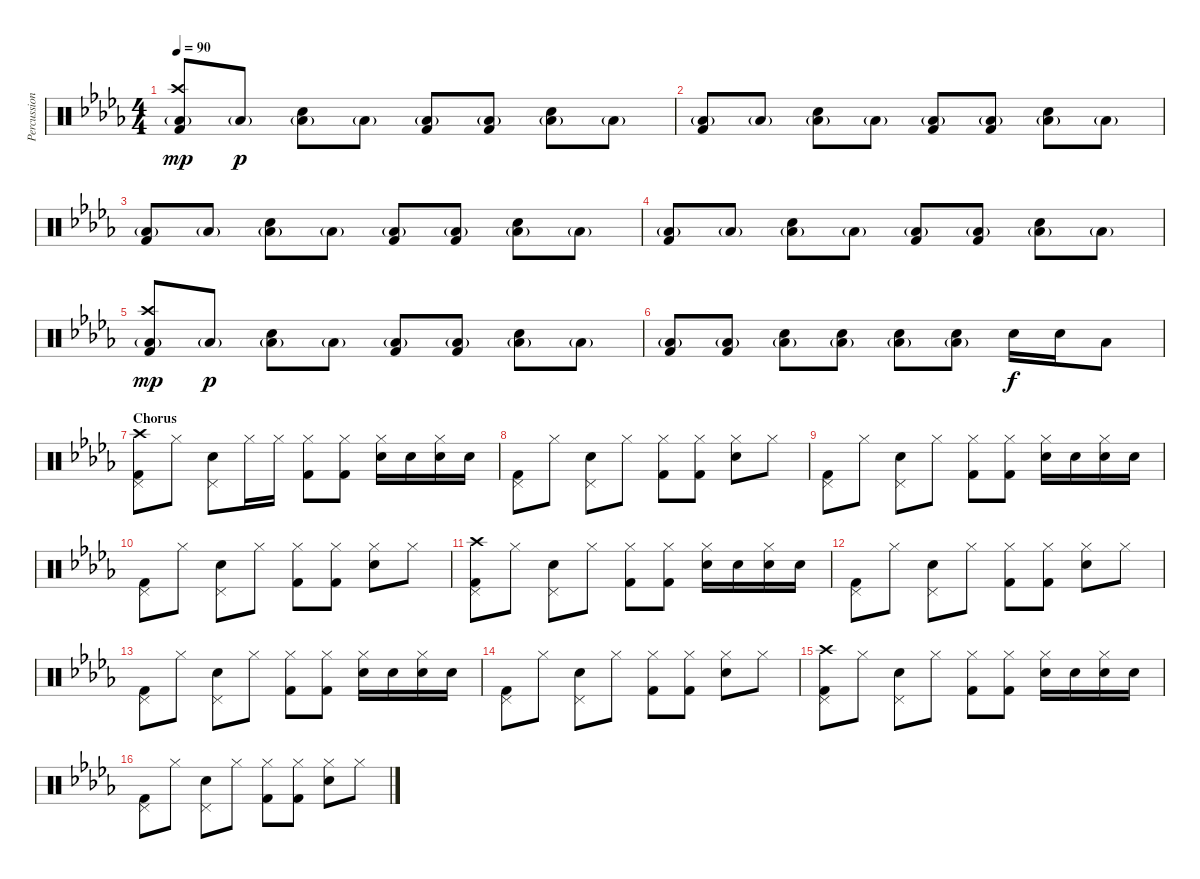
\track ("Percussion" "Percussion") {instrument percussion}
\staff {score}
\articulation defaults
\ts (4 4)
\tempo 90
\clef neutral
\ks db
("Low Floor Tom (hit)"{g} "Crash high (hit)" "Kick (hit) 2").8{dy mp} "Low Floor Tom (hit)"{g}.8{dy p} ("Low Floor Tom (hit)"{g} "Snare (hit) 2").8 "Low Floor Tom (hit)"{g}.8 ("Low Floor Tom (hit)"{g} "Kick (hit) 2").8 ("Low Floor Tom (hit)"{g} "Kick (hit) 2").8 ("Low Floor Tom (hit)"{g} "Snare (hit) 2").8 "Low Floor Tom (hit)"{g}.8 |
("Low Floor Tom (hit)"{g} "Kick (hit) 2").8 "Low Floor Tom (hit)"{g}.8 ("Low Floor Tom (hit)"{g} "Snare (hit) 2").8 "Low Floor Tom (hit)"{g}.8 ("Low Floor Tom (hit)"{g} "Kick (hit) 2").8 ("Low Floor Tom (hit)"{g} "Kick (hit) 2").8 ("Low Floor Tom (hit)"{g} "Snare (hit) 2").8 "Low Floor Tom (hit)"{g}.8 |
("Low Floor Tom (hit)"{g} "Kick (hit) 2").8 "Low Floor Tom (hit)"{g}.8 ("Low Floor Tom (hit)"{g} "Snare (hit) 2").8 "Low Floor Tom (hit)"{g}.8 ("Low Floor Tom (hit)"{g} "Kick (hit) 2").8 ("Low Floor Tom (hit)"{g} "Kick (hit) 2").8 ("Low Floor Tom (hit)"{g} "Snare (hit) 2").8 "Low Floor Tom (hit)"{g}.8 |
("Low Floor Tom (hit)"{g} "Kick (hit) 2").8 "Low Floor Tom (hit)"{g}.8 ("Low Floor Tom (hit)"{g} "Snare (hit) 2").8 "Low Floor Tom (hit)"{g}.8 ("Low Floor Tom (hit)"{g} "Kick (hit) 2").8 ("Low Floor Tom (hit)"{g} "Kick (hit) 2").8 ("Low Floor Tom (hit)"{g} "Snare (hit) 2").8 "Low Floor Tom (hit)"{g}.8 |
("Low Floor Tom (hit)"{g} "Crash high (hit)" "Kick (hit) 2").8{dy mp} "Low Floor Tom (hit)"{g}.8{dy p} ("Low Floor Tom (hit)"{g} "Snare (hit) 2").8 "Low Floor Tom (hit)"{g}.8 ("Low Floor Tom (hit)"{g} "Kick (hit) 2").8 ("Low Floor Tom (hit)"{g} "Kick (hit) 2").8 ("Low Floor Tom (hit)"{g} "Snare (hit) 2").8 "Low Floor Tom (hit)"{g}.8 |
("Low Floor Tom (hit)"{g} "Kick (hit) 2").8 ("Low Floor Tom (hit)"{g} "Kick (hit) 2").8 ("Low Floor Tom (hit)"{g} "Snare (hit) 2").8 ("Low Floor Tom (hit)"{g} "Snare (hit) 2").8 ("Low Floor Tom (hit)"{g} "Snare (hit) 2").8 ("Low Floor Tom (hit)"{g} "Snare (hit) 2").8 "Snare (hit) 2".16{dy f} "Snare (hit) 2".16 "Low Floor Tom (hit)".8 |
\section ("" "Chorus")
("Pedal Hi-Hat (hit)" "Crash high (hit)" "Kick (hit) 2").8 "Hi-Hat (closed)".8 ("Pedal Hi-Hat (hit)" "Snare (hit) 2").8 "Hi-Hat (closed)".16 "Hi-Hat (closed)".16 ("Hi-Hat (closed)" "Kick (hit) 2").8 ("Hi-Hat (closed)" "Kick (hit) 2").8 ("Hi-Hat (closed)" "Snare (hit) 2").16 "Snare (hit) 2".16 ("Hi-Hat (closed)" "Snare (hit) 2").16 "Snare (hit) 2".16 |
("Pedal Hi-Hat (hit)" "Kick (hit) 2").8 "Hi-Hat (closed)".8 ("Pedal Hi-Hat (hit)" "Snare (hit) 2").8 "Hi-Hat (closed)".8 ("Hi-Hat (closed)" "Kick (hit) 2").8 ("Hi-Hat (closed)" "Kick (hit) 2").8 ("Hi-Hat (closed)" "Snare (hit) 2").8 "Hi-Hat (closed)".8 |
("Pedal Hi-Hat (hit)" "Kick (hit) 2").8 "Hi-Hat (closed)".8 ("Pedal Hi-Hat (hit)" "Snare (hit) 2").8 "Hi-Hat (closed)".8 ("Hi-Hat (closed)" "Kick (hit) 2").8 ("Hi-Hat (closed)" "Kick (hit) 2").8 ("Hi-Hat (closed)" "Snare (hit) 2").16 "Snare (hit) 2".16 ("Hi-Hat (closed)" "Snare (hit) 2").16 "Snare (hit) 2".16 |
("Pedal Hi-Hat (hit)" "Kick (hit) 2").8 "Hi-Hat (closed)".8 ("Pedal Hi-Hat (hit)" "Snare (hit) 2").8 "Hi-Hat (closed)".8 ("Hi-Hat (closed)" "Kick (hit) 2").8 ("Hi-Hat (closed)" "Kick (hit) 2").8 ("Hi-Hat (closed)" "Snare (hit) 2").8 "Hi-Hat (closed)".8 |
("Pedal Hi-Hat (hit)" "Crash high (hit)" "Kick (hit) 2").8 "Hi-Hat (closed)".8 ("Pedal Hi-Hat (hit)" "Snare (hit) 2").8 "Hi-Hat (closed)".8 ("Hi-Hat (closed)" "Kick (hit) 2").8 ("Hi-Hat (closed)" "Kick (hit) 2").8 ("Hi-Hat (closed)" "Snare (hit) 2").16 "Snare (hit) 2".16 ("Hi-Hat (closed)" "Snare (hit) 2").16 "Snare (hit) 2".16 |
("Pedal Hi-Hat (hit)" "Kick (hit) 2").8 "Hi-Hat (closed)".8 ("Pedal Hi-Hat (hit)" "Snare (hit) 2").8 "Hi-Hat (closed)".8 ("Hi-Hat (closed)" "Kick (hit) 2").8 ("Hi-Hat (closed)" "Kick (hit) 2").8 ("Hi-Hat (closed)" "Snare (hit) 2").8 "Hi-Hat (closed)".8 |
("Pedal Hi-Hat (hit)" "Kick (hit) 2").8 "Hi-Hat (closed)".8 ("Pedal Hi-Hat (hit)" "Snare (hit) 2").8 "Hi-Hat (closed)".8 ("Hi-Hat (closed)" "Kick (hit) 2").8 ("Hi-Hat (closed)" "Kick (hit) 2").8 ("Hi-Hat (closed)" "Snare (hit) 2").16 "Snare (hit) 2".16 ("Hi-Hat (closed)" "Snare (hit) 2").16 "Snare (hit) 2".16 |
("Pedal Hi-Hat (hit)" "Kick (hit) 2").8 "Hi-Hat (closed)".8 ("Pedal Hi-Hat (hit)" "Snare (hit) 2").8 "Hi-Hat (closed)".8 ("Hi-Hat (closed)" "Kick (hit) 2").8 ("Hi-Hat (closed)" "Kick (hit) 2").8 ("Hi-Hat (closed)" "Snare (hit) 2").8 "Hi-Hat (closed)".8 |
("Pedal Hi-Hat (hit)" "Crash high (hit)" "Kick (hit) 2").8 "Hi-Hat (closed)".8 ("Pedal Hi-Hat (hit)" "Snare (hit) 2").8 "Hi-Hat (closed)".8 ("Hi-Hat (closed)" "Kick (hit) 2").8 ("Hi-Hat (closed)" "Kick (hit) 2").8 ("Hi-Hat (closed)" "Snare (hit) 2").16 "Snare (hit) 2".16 ("Hi-Hat (closed)" "Snare (hit) 2").16 "Snare (hit) 2".16 |
("Pedal Hi-Hat (hit)" "Kick (hit) 2").8 "Hi-Hat (closed)".8 ("Pedal Hi-Hat (hit)" "Snare (hit) 2").8 "Hi-Hat (closed)".8 ("Hi-Hat (closed)" "Kick (hit) 2").8 ("Hi-Hat (closed)" "Kick (hit) 2").8 ("Hi-Hat (closed)" "Snare (hit) 2").8 "Hi-Hat (closed)".8
